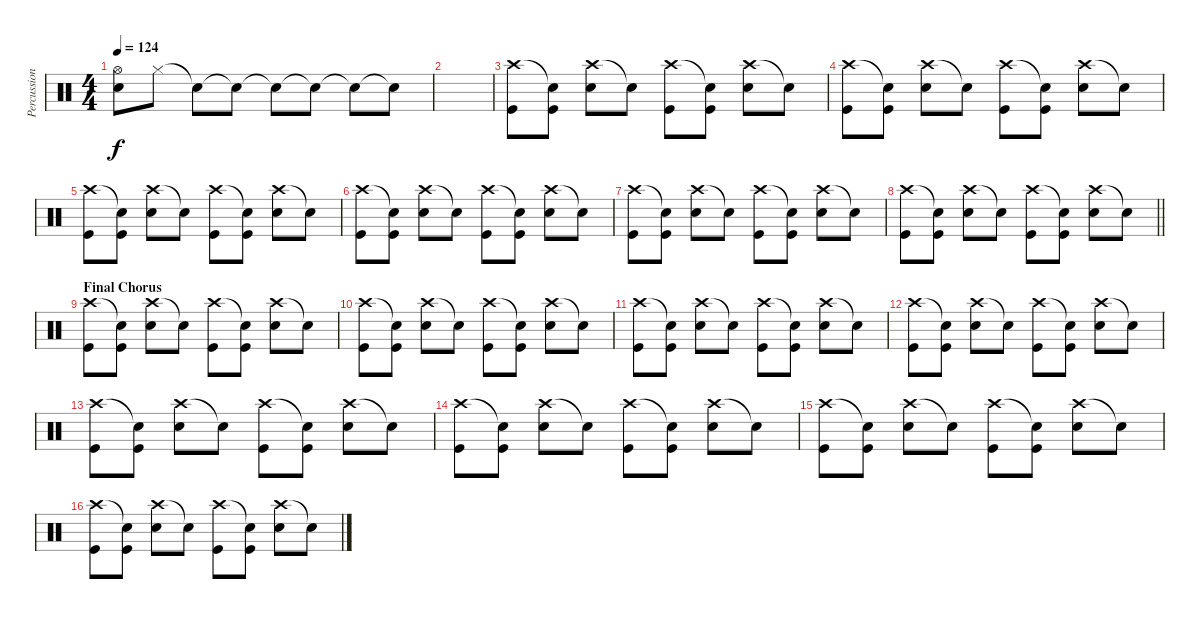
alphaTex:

\track ("Percussion" "Percussion") {instrument percussion}
\staff {score}
\articulation defaults
\ts (4 4)
\tempo 124
\clef neutral
\ks c
("Hi-Hat (open)" "Electric Snare (hit)").8{dy f} "Hi-Hat (closed)".8 "Snare (hit)"{t}.8 "Snare (hit)"{t}.8 "Snare (hit)"{t}.8 "Snare (hit)"{t}.8 "Snare (hit)"{t}.8 "Snare (hit)"{t}.8 |
|
("Crash high (hit)" "Kick (hit)").8 ("Snare (hit)"{t} "Kick (hit)").8 ("Crash high (hit)" "Electric Snare (hit)").8 "Snare (hit)"{t}.8 ("Crash high (hit)" "Kick (hit)").8 ("Snare (hit)"{t} "Kick (hit)").8 ("Crash high (hit)" "Electric Snare (hit)").8 "Snare (hit)"{t}.8 |
("Crash high (hit)" "Kick (hit)").8 ("Snare (hit)"{t} "Kick (hit)").8 ("Crash high (hit)" "Electric Snare (hit)").8 "Snare (hit)"{t}.8 ("Crash high (hit)" "Kick (hit)").8 ("Snare (hit)"{t} "Kick (hit)").8 ("Crash high (hit)" "Electric Snare (hit)").8 "Snare (hit)"{t}.8 |
("Crash high (hit)" "Kick (hit)").8 ("Snare (hit)"{t} "Kick (hit)").8 ("Crash high (hit)" "Electric Snare (hit)").8 "Snare (hit)"{t}.8 ("Crash high (hit)" "Kick (hit)").8 ("Snare (hit)"{t} "Kick (hit)").8 ("Crash high (hit)" "Electric Snare (hit)").8 "Snare (hit)"{t}.8 |
("Crash high (hit)" "Kick (hit)").8 ("Snare (hit)"{t} "Kick (hit)").8 ("Crash high (hit)" "Electric Snare (hit)").8 "Snare (hit)"{t}.8 ("Crash high (hit)" "Kick (hit)").8 ("Snare (hit)"{t} "Kick (hit)").8 ("Crash high (hit)" "Electric Snare (hit)").8 "Snare (hit)"{t}.8 |
("Crash high (hit)" "Kick (hit)").8 ("Snare (hit)"{t} "Kick (hit)").8 ("Crash high (hit)" "Electric Snare (hit)").8 "Snare (hit)"{t}.8 ("Crash high (hit)" "Kick (hit)").8 ("Snare (hit)"{t} "Kick (hit)").8 ("Crash high (hit)" "Electric Snare (hit)").8 "Snare (hit)"{t}.8 |
\barLineRight lightlight
("Crash high (hit)" "Kick (hit)").8 ("Snare (hit)"{t} "Kick (hit)").8 ("Crash high (hit)" "Electric Snare (hit)").8 "Snare (hit)"{t}.8 ("Crash high (hit)" "Kick (hit)").8 ("Snare (hit)"{t} "Kick (hit)").8 ("Crash high (hit)" "Electric Snare (hit)").8 "Snare (hit)"{t}.8 |
\section ("" "Final Chorus")
("Crash high (hit)" "Kick (hit)").8 ("Snare (hit)"{t} "Kick (hit)").8 ("Crash high (hit)" "Electric Snare (hit)").8 "Snare (hit)"{t}.8 ("Crash high (hit)" "Kick (hit)").8 ("Snare (hit)"{t} "Kick (hit)").8 ("Crash high (hit)" "Electric Snare (hit)").8 "Snare (hit)"{t}.8 |
("Crash high (hit)" "Kick (hit)").8 ("Snare (hit)"{t} "Kick (hit)").8 ("Crash high (hit)" "Electric Snare (hit)").8 "Snare (hit)"{t}.8 ("Crash high (hit)" "Kick (hit)").8 ("Snare (hit)"{t} "Kick (hit)").8 ("Crash high (hit)" "Electric Snare (hit)").8 "Snare (hit)"{t}.8 |
("Crash high (hit)" "Kick (hit)").8 ("Snare (hit)"{t} "Kick (hit)").8 ("Crash high (hit)" "Electric Snare (hit)").8 "Snare (hit)"{t}.8 ("Crash high (hit)" "Kick (hit)").8 ("Snare (hit)"{t} "Kick (hit)").8 ("Crash high (hit)" "Electric Snare (hit)").8 "Snare (hit)"{t}.8 |
("Crash high (hit)" "Kick (hit)").8 ("Snare (hit)"{t} "Kick (hit)").8 ("Crash high (hit)" "Electric Snare (hit)").8 "Snare (hit)"{t}.8 ("Crash high (hit)" "Kick (hit)").8 ("Snare (hit)"{t} "Kick (hit)").8 ("Crash high (hit)" "Electric Snare (hit)").8 "Snare (hit)"{t}.8 |
("Crash high (hit)" "Kick (hit)").8 ("Snare (hit)"{t} "Kick (hit)").8 ("Crash high (hit)" "Electric Snare (hit)").8 "Snare (hit)"{t}.8 ("Crash high (hit)" "Kick (hit)").8 ("Snare (hit)"{t} "Kick (hit)").8 ("Crash high (hit)" "Electric Snare (hit)").8 "Snare (hit)"{t}.8 |
("Crash high (hit)" "Kick (hit)").8 ("Snare (hit)"{t} "Kick (hit)").8 ("Crash high (hit)" "Electric Snare (hit)").8 "Snare (hit)"{t}.8 ("Crash high (hit)" "Kick (hit)").8 ("Snare (hit)"{t} "Kick (hit)").8 ("Crash high (hit)" "Electric Snare (hit)").8 "Snare (hit)"{t}.8 |
("Crash high (hit)" "Kick (hit)").8 ("Snare (hit)"{t} "Kick (hit)").8 ("Crash high (hit)" "Electric Snare (hit)").8 "Snare (hit)"{t}.8 ("Crash high (hit)" "Kick (hit)").8 ("Snare (hit)"{t} "Kick (hit)").8 ("Crash high (hit)" "Electric Snare (hit)").8 "Snare (hit)"{t}.8 |
("Crash high (hit)" "Kick (hit)").8 ("Snare (hit)"{t} "Kick (hit)").8 ("Crash high (hit)" "Electric Snare (hit)").8 "Snare (hit)"{t}.8 ("Crash high (hit)" "Kick (hit)").8 ("Snare (hit)"{t} "Kick (hit)").8 ("Crash high (hit)" "Electric Snare (hit)").8 "Snare (hit)"{t}.8
